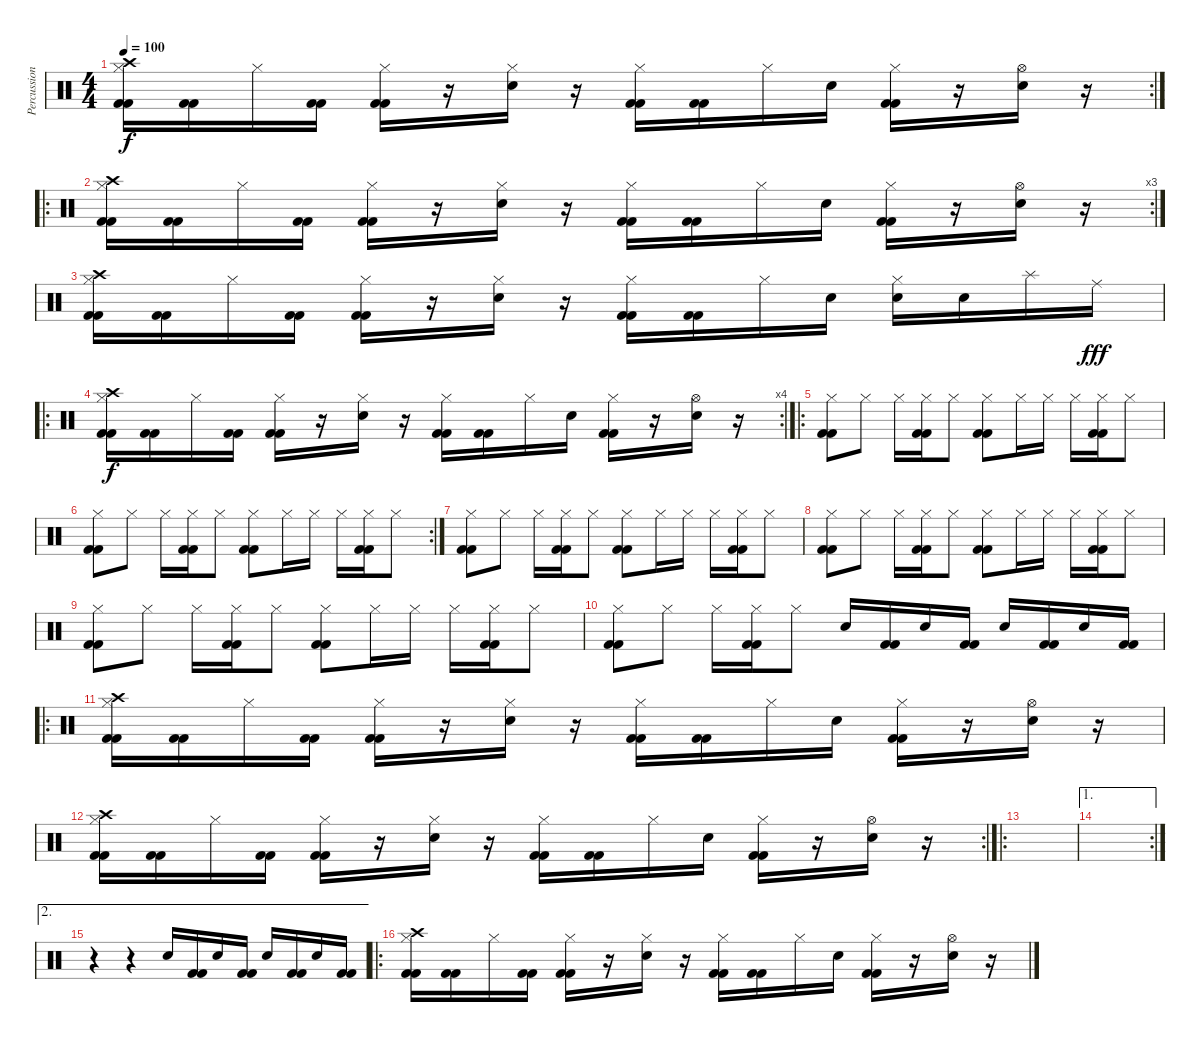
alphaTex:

\track ("Percussion" "Percussion") {instrument percussion}
\staff {score}
\articulation defaults
\rc 2
\ts (4 4)
\tempo 100
\clef neutral
\ks c
("Hi-Hat (closed)" "Crash high (hit)" "Kick (hit) 2" "Kick (hit) 2").16{dy f} ("Kick (hit) 2" "Kick (hit) 2").16 "Hi-Hat (closed)".16 ("Kick (hit) 2" "Kick (hit) 2").16 ("Hi-Hat (closed)" "Kick (hit) 2" "Kick (hit) 2").16 r.16 ("Hi-Hat (closed)" "Snare (hit) 2").16 r.16 ("Hi-Hat (closed)" "Kick (hit) 2" "Kick (hit) 2").16 ("Kick (hit) 2" "Kick (hit) 2").16 "Hi-Hat (closed)".16 "Snare (hit) 2".16 ("Hi-Hat (closed)" "Kick (hit) 2" "Kick (hit) 2").16 r.16 ("Hi-Hat (open)" "Snare (hit) 2").16 r.16 |
\ro
\rc 3
("Hi-Hat (closed)" "Crash high (hit)" "Kick (hit) 2" "Kick (hit) 2").16 ("Kick (hit) 2" "Kick (hit) 2").16 "Hi-Hat (closed)".16 ("Kick (hit) 2" "Kick (hit) 2").16 ("Hi-Hat (closed)" "Kick (hit) 2" "Kick (hit) 2").16 r.16 ("Hi-Hat (closed)" "Snare (hit) 2").16 r.16 ("Hi-Hat (closed)" "Kick (hit) 2" "Kick (hit) 2").16 ("Kick (hit) 2" "Kick (hit) 2").16 "Hi-Hat (closed)".16 "Snare (hit) 2".16 ("Hi-Hat (closed)" "Kick (hit) 2" "Kick (hit) 2").16 r.16 ("Hi-Hat (open)" "Snare (hit) 2").16 r.16 |
("Hi-Hat (closed)" "Crash high (hit)" "Kick (hit) 2" "Kick (hit) 2").16 ("Kick (hit) 2" "Kick (hit) 2").16 "Hi-Hat (closed)".16 ("Kick (hit) 2" "Kick (hit) 2").16 ("Hi-Hat (closed)" "Kick (hit) 2" "Kick (hit) 2").16 r.16 ("Hi-Hat (closed)" "Snare (hit) 2").16 r.16 ("Hi-Hat (closed)" "Kick (hit) 2" "Kick (hit) 2").16 ("Kick (hit) 2" "Kick (hit) 2").16 "Hi-Hat (closed)".16 "Snare (hit) 2".16 ("Hi-Hat (closed)" "Snare (hit) 2").16 "Snare (hit) 2".16 "Splash (hit)".16 "Ride (middle)".16{dy fff} |
\ro
\rc 4
("Hi-Hat (closed)" "Crash high (hit)" "Kick (hit) 2" "Kick (hit) 2").16{dy f} ("Kick (hit) 2" "Kick (hit) 2").16 "Hi-Hat (closed)".16 ("Kick (hit) 2" "Kick (hit) 2").16 ("Hi-Hat (closed)" "Kick (hit) 2" "Kick (hit) 2").16 r.16 ("Hi-Hat (closed)" "Snare (hit) 2").16 r.16 ("Hi-Hat (closed)" "Kick (hit) 2" "Kick (hit) 2").16 ("Kick (hit) 2" "Kick (hit) 2").16 "Hi-Hat (closed)".16 "Snare (hit) 2".16 ("Hi-Hat (closed)" "Kick (hit) 2" "Kick (hit) 2").16 r.16 ("Hi-Hat (open)" "Snare (hit) 2").16 r.16 |
\ro
("Hi-Hat (closed)" "Kick (hit) 2" "Kick (hit) 2").8 "Hi-Hat (closed)".8 "Hi-Hat (closed)".16 ("Hi-Hat (closed)" "Kick (hit) 2" "Kick (hit) 2").16 "Hi-Hat (closed)".8 ("Hi-Hat (closed)" "Kick (hit) 2" "Kick (hit) 2").8 "Hi-Hat (closed)".16 "Hi-Hat (closed)".16 "Hi-Hat (closed)".16 ("Hi-Hat (closed)" "Kick (hit) 2" "Kick (hit) 2").16 "Hi-Hat (closed)".8 |
\rc 2
("Hi-Hat (closed)" "Kick (hit) 2" "Kick (hit) 2").8 "Hi-Hat (closed)".8 "Hi-Hat (closed)".16 ("Hi-Hat (closed)" "Kick (hit) 2" "Kick (hit) 2").16 "Hi-Hat (closed)".8 ("Hi-Hat (closed)" "Kick (hit) 2" "Kick (hit) 2").8 "Hi-Hat (closed)".16 "Hi-Hat (closed)".16 "Hi-Hat (closed)".16 ("Hi-Hat (closed)" "Kick (hit) 2" "Kick (hit) 2").16 "Hi-Hat (closed)".8 |
("Hi-Hat (closed)" "Kick (hit) 2" "Kick (hit) 2").8 "Hi-Hat (closed)".8 "Hi-Hat (closed)".16 ("Hi-Hat (closed)" "Kick (hit) 2" "Kick (hit) 2").16 "Hi-Hat (closed)".8 ("Hi-Hat (closed)" "Kick (hit) 2" "Kick (hit) 2").8 "Hi-Hat (closed)".16 "Hi-Hat (closed)".16 "Hi-Hat (closed)".16 ("Hi-Hat (closed)" "Kick (hit) 2" "Kick (hit) 2").16 "Hi-Hat (closed)".8 |
("Hi-Hat (closed)" "Kick (hit) 2" "Kick (hit) 2").8 "Hi-Hat (closed)".8 "Hi-Hat (closed)".16 ("Hi-Hat (closed)" "Kick (hit) 2" "Kick (hit) 2").16 "Hi-Hat (closed)".8 ("Hi-Hat (closed)" "Kick (hit) 2" "Kick (hit) 2").8 "Hi-Hat (closed)".16 "Hi-Hat (closed)".16 "Hi-Hat (closed)".16 ("Hi-Hat (closed)" "Kick (hit) 2" "Kick (hit) 2").16 "Hi-Hat (closed)".8 |
("Hi-Hat (closed)" "Kick (hit) 2" "Kick (hit) 2").8 "Hi-Hat (closed)".8 "Hi-Hat (closed)".16 ("Hi-Hat (closed)" "Kick (hit) 2" "Kick (hit) 2").16 "Hi-Hat (closed)".8 ("Hi-Hat (closed)" "Kick (hit) 2" "Kick (hit) 2").8 "Hi-Hat (closed)".16 "Hi-Hat (closed)".16 "Hi-Hat (closed)".16 ("Hi-Hat (closed)" "Kick (hit) 2" "Kick (hit) 2").16 "Hi-Hat (closed)".8 |
("Hi-Hat (closed)" "Kick (hit) 2" "Kick (hit) 2").8 "Hi-Hat (closed)".8 "Hi-Hat (closed)".16 ("Hi-Hat (closed)" "Kick (hit) 2" "Kick (hit) 2").16 "Hi-Hat (closed)".8 "Snare (hit) 2".16 ("Kick (hit) 2" "Kick (hit) 2").16 "Snare (hit) 2".16 ("Kick (hit) 2" "Kick (hit) 2").16 "Snare (hit) 2".16 ("Kick (hit) 2" "Kick (hit) 2").16 "Snare (hit) 2".16 ("Kick (hit) 2" "Kick (hit) 2").16 |
\ro
("Hi-Hat (closed)" "Crash high (hit)" "Kick (hit) 2" "Kick (hit) 2").16 ("Kick (hit) 2" "Kick (hit) 2").16 "Hi-Hat (closed)".16 ("Kick (hit) 2" "Kick (hit) 2").16 ("Hi-Hat (closed)" "Kick (hit) 2" "Kick (hit) 2").16 r.16 ("Hi-Hat (closed)" "Snare (hit) 2").16 r.16 ("Hi-Hat (closed)" "Kick (hit) 2" "Kick (hit) 2").16 ("Kick (hit) 2" "Kick (hit) 2").16 "Hi-Hat (closed)".16 "Snare (hit) 2".16 ("Hi-Hat (closed)" "Kick (hit) 2" "Kick (hit) 2").16 r.16 ("Hi-Hat (open)" "Snare (hit) 2").16 r.16 |
\rc 2
("Hi-Hat (closed)" "Crash high (hit)" "Kick (hit) 2" "Kick (hit) 2").16 ("Kick (hit) 2" "Kick (hit) 2").16 "Hi-Hat (closed)".16 ("Kick (hit) 2" "Kick (hit) 2").16 ("Hi-Hat (closed)" "Kick (hit) 2" "Kick (hit) 2").16 r.16 ("Hi-Hat (closed)" "Snare (hit) 2").16 r.16 ("Hi-Hat (closed)" "Kick (hit) 2" "Kick (hit) 2").16 ("Kick (hit) 2" "Kick (hit) 2").16 "Hi-Hat (closed)".16 "Snare (hit) 2".16 ("Hi-Hat (closed)" "Kick (hit) 2" "Kick (hit) 2").16 r.16 ("Hi-Hat (open)" "Snare (hit) 2").16 r.16 |
\ro
|
\ae 1
\rc 2
|
\ae 2
r.4 r.4 "Snare (hit) 2".16 ("Kick (hit) 2" "Kick (hit) 2").16 "Snare (hit) 2".16 ("Kick (hit) 2" "Kick (hit) 2").16 "Snare (hit) 2".16 ("Kick (hit) 2" "Kick (hit) 2").16 "Snare (hit) 2".16 ("Kick (hit) 2" "Kick (hit) 2").16 |
\ro
("Hi-Hat (closed)" "Crash high (hit)" "Kick (hit) 2" "Kick (hit) 2").16 ("Kick (hit) 2" "Kick (hit) 2").16 "Hi-Hat (closed)".16 ("Kick (hit) 2" "Kick (hit) 2").16 ("Hi-Hat (closed)" "Kick (hit) 2" "Kick (hit) 2").16 r.16 ("Hi-Hat (closed)" "Snare (hit) 2").16 r.16 ("Hi-Hat (closed)" "Kick (hit) 2" "Kick (hit) 2").16 ("Kick (hit) 2" "Kick (hit) 2").16 "Hi-Hat (closed)".16 "Snare (hit) 2".16 ("Hi-Hat (closed)" "Kick (hit) 2" "Kick (hit) 2").16 r.16 ("Hi-Hat (open)" "Snare (hit) 2").16 r.16
